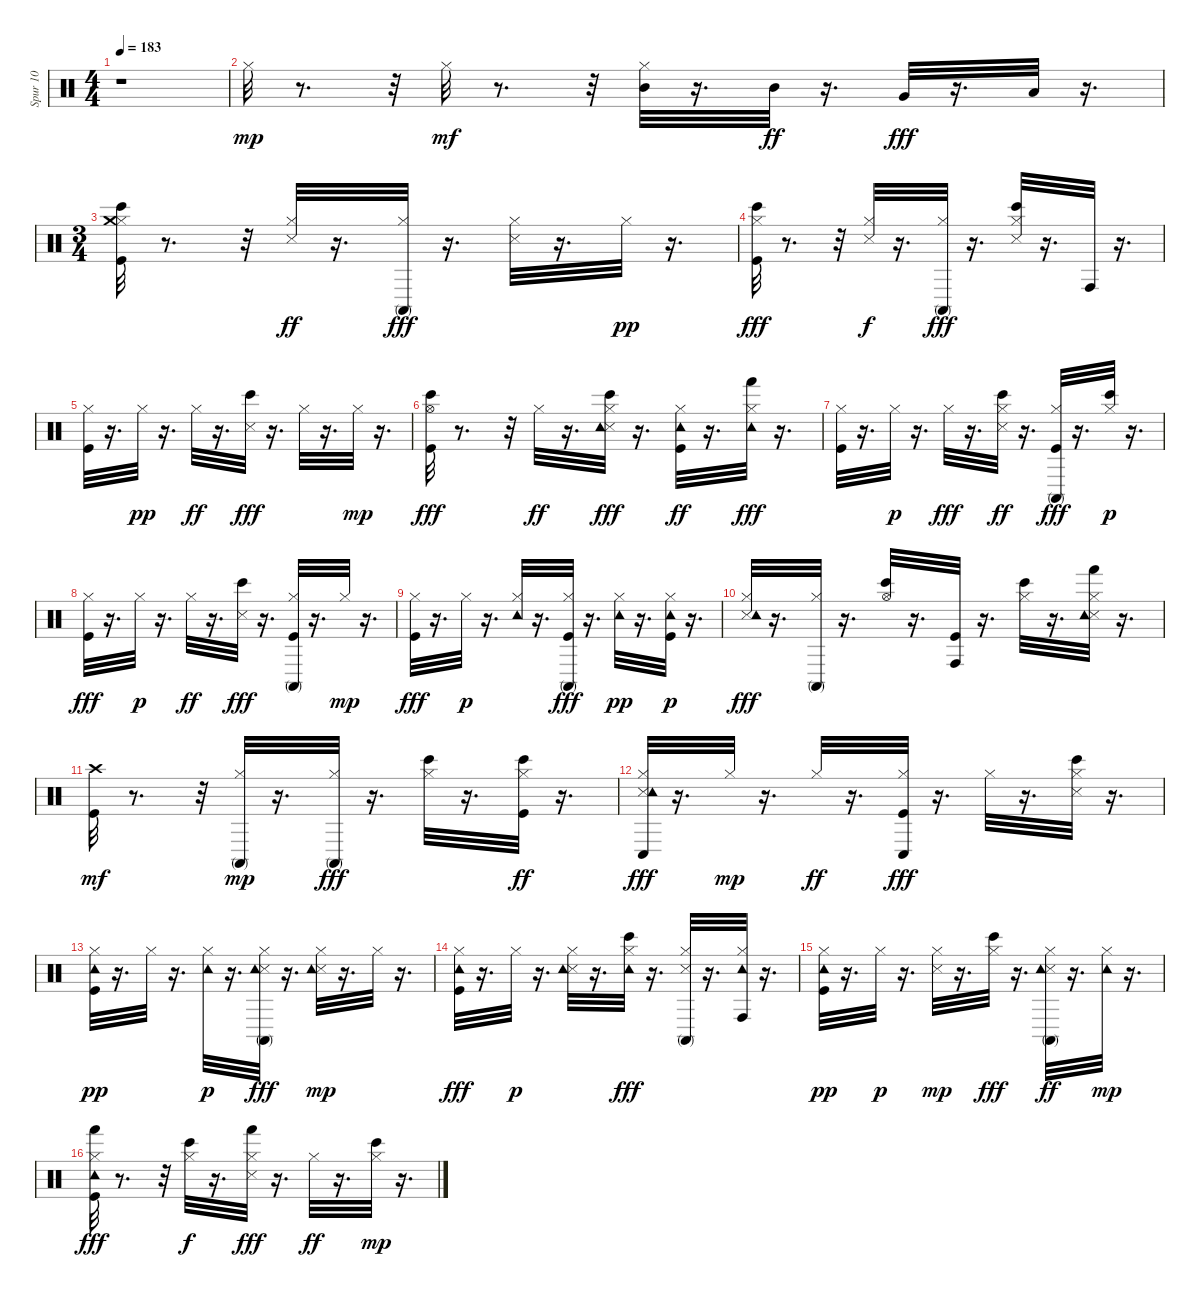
\track ("Spur 10" "Spur 10") {instrument percussion}
\staff {score}
\articulation defaults
\ts (4 4)
\tempo 183
\clef neutral
\ks c
r.1{dy mp} |
"Hi-Hat (closed)".32 r.8{d} r.32 "Hi-Hat (closed)".32{dy mf} r.8{d} r.32 ("Hi-Hat (closed)" "Mid Tom (hit)").32 r.16{d} "Mid Tom (hit)".32{dy ff} r.16{d} "Very Low Tom (hit)".32{dy fff} r.16{d} "Low Floor Tom (hit)".32 r.16{d} |
\ts (3 4)
("Kick (hit)" "Hi-Hat (closed)" "Crash medium (hit)" "Bongo High (hit)").32 r.8{d} r.32 ("Snare (side stick) 3" "Hi-Hat (closed)").32{dy ff} r.16{d} ("Hi-Hat (closed)" "Conga high (mute)").32{dy fff} r.16{d} ("Snare (side stick) 3" "Hi-Hat (closed)").32 r.16{d} "Hi-Hat (closed)".32{dy pp} r.16{d} |
("Kick (hit)" "Hi-Hat (closed)" "Bongo High (hit)").32{dy fff} r.8{d} r.32 ("Snare (side stick) 3" "Hi-Hat (closed)").32{dy f} r.16{d} ("Hi-Hat (closed)" "Conga high (mute)").32{dy fff} r.16{d} ("Snare (side stick) 3" "Hi-Hat (closed)" "Bongo High (hit)").32 r.16{d} "Conga high (hit)".32 r.16{d} |
("Kick (hit)" "Hi-Hat (closed)").32 r.16{d} "Hi-Hat (closed)".32{dy pp} r.16{d} "Hi-Hat (closed)".32{dy ff} r.16{d} ("Snare (side stick) 3" "Bongo High (hit)").32{dy fff} r.16{d} "Hi-Hat (closed)".32 r.16{d} "Hi-Hat (closed)".32{dy mp} r.16{d} |
("Kick (hit)" "Hi-Hat (open)" "Bongo High (hit)").32{dy fff} r.8{d} r.32 "Hi-Hat (closed)".32{dy ff} r.16{d} ("Snare (side stick) 3" "Hi-Hat (closed)" "Tambourine (hit)" "Bongo High (hit)").32{dy fff} r.16{d} ("Kick (hit)" "Hi-Hat (closed)" "Tambourine (hit)").32{dy ff} r.16{d} ("Hi-Hat (closed)" "Tambourine (hit)" "Hand (hit)").32{dy fff} r.16{d} |
("Kick (hit)" "Hi-Hat (closed)").32 r.16{d} "Hi-Hat (closed)".32{dy p} r.16{d} "Hi-Hat (closed)".32{dy fff} r.16{d} ("Snare (side stick) 3" "Hi-Hat (closed)" "Bongo High (hit)").32{dy ff} r.16{d} ("Kick (hit)" "Hi-Hat (closed)" "Conga high (mute)").32{dy fff} r.16{d} ("Hi-Hat (closed)" "Bongo High (hit)").32{dy p} r.16{d} |
("Kick (hit)" "Hi-Hat (closed)").32{dy fff} r.16{d} "Hi-Hat (closed)".32{dy p} r.16{d} "Hi-Hat (closed)".32{dy ff} r.16{d} ("Snare (side stick) 3" "Bongo High (hit)").32{dy fff} r.16{d} ("Kick (hit)" "Hi-Hat (closed)" "Conga high (mute)").32 r.16{d} "Hi-Hat (closed)".32{dy mp} r.16{d} |
("Kick (hit)" "Hi-Hat (closed)").32{dy fff} r.16{d} "Hi-Hat (closed)".32{dy p} r.16{d} ("Hi-Hat (closed)" "Tambourine (hit)").32 r.16{d} ("Kick (hit)" "Hi-Hat (closed)" "Conga high (mute)").32{dy fff} r.16{d} ("Hi-Hat (closed)" "Tambourine (hit)").32{dy pp} r.16{d} ("Kick (hit)" "Hi-Hat (closed)" "Tambourine (hit)").32{dy p} r.16{d} |
("Snare (side stick) 3" "Hi-Hat (closed)" "Tambourine (hit)").32{dy fff} r.16{d} ("Hi-Hat (closed)" "Conga high (mute)").32 r.16{d} ("Hi-Hat (open)" "Bongo High (hit)").32 r.16{d} ("Kick (hit)" "Conga high (hit)").32 r.16{d} ("Hi-Hat (closed)" "Bongo High (hit)").32 r.16{d} ("Snare (side stick) 3" "Hi-Hat (closed)" "Tambourine (hit)" "Hand (hit)").32 r.16{d} |
("Kick (hit)" "Crash high (hit)").32{dy mf} r.8{d} r.32 ("Hi-Hat (closed)" "Conga high (mute)").32{dy mp} r.16{d} ("Hi-Hat (closed)" "Conga high (mute)").32{dy fff} r.16{d} ("Hi-Hat (closed)" "Bongo High (hit)").32 r.16{d} ("Kick (hit)" "Hi-Hat (closed)" "Bongo High (hit)").32{dy ff} r.16{d} |
("Snare (side stick) 3" "Hi-Hat (closed)" "Tambourine (hit)" "Conga low (hit)").32{dy fff} r.16{d} "Hi-Hat (closed)".32{dy mp} r.16{d} "Hi-Hat (closed)".32{dy ff} r.16{d} ("Kick (hit)" "Hi-Hat (closed)" "Conga low (hit)").32{dy fff} r.16{d} "Hi-Hat (closed)".32 r.16{d} ("Snare (side stick) 3" "Hi-Hat (closed)" "Bongo High (hit)").32 r.16{d} |
("Kick (hit)" "Hi-Hat (closed)" "Tambourine (hit)").32{dy pp} r.16{d} "Hi-Hat (closed)".32 r.16{d} ("Hi-Hat (closed)" "Tambourine (hit)").32{dy p} r.16{d} ("Snare (side stick) 3" "Hi-Hat (closed)" "Tambourine (hit)" "Conga high (mute)").32{dy fff} r.16{d} ("Snare (side stick) 3" "Hi-Hat (closed)" "Tambourine (hit)").32{dy mp} r.16{d} "Hi-Hat (closed)".32 r.16{d} |
("Kick (hit)" "Hi-Hat (closed)" "Tambourine (hit)").32{dy fff} r.16{d} "Hi-Hat (closed)".32{dy p} r.16{d} ("Snare (side stick) 3" "Hi-Hat (closed)" "Tambourine (hit)").32 r.16{d} ("Hi-Hat (closed)" "Tambourine (hit)" "Bongo High (hit)").32{dy fff} r.16{d} ("Snare (side stick) 3" "Hi-Hat (closed)" "Conga high (mute)").32 r.16{d} ("Hi-Hat (closed)" "Tambourine (hit)" "Conga high (hit)").32 r.16{d} |
("Kick (hit)" "Hi-Hat (closed)" "Tambourine (hit)").32{dy pp} r.16{d} "Hi-Hat (closed)".32{dy p} r.16{d} ("Snare (side stick) 3" "Hi-Hat (closed)").32{dy mp} r.16{d} ("Hi-Hat (closed)" "Bongo High (hit)").32{dy fff} r.16{d} ("Snare (side stick) 3" "Hi-Hat (closed)" "Tambourine (hit)" "Conga high (mute)").32{dy ff} r.16{d} ("Hi-Hat (closed)" "Tambourine (hit)").32{dy mp} r.16{d} |
("Kick (hit)" "Hi-Hat (closed)" "Tambourine (hit)" "Hand (hit)").32{dy fff} r.8{d} r.32 ("Hi-Hat (closed)" "Bongo High (hit)").32{dy f} r.16{d} ("Snare (side stick) 3" "Hi-Hat (closed)" "Hand (hit)").32{dy fff} r.16{d} "Hi-Hat (closed)".32{dy ff} r.16{d} ("Hi-Hat (closed)" "Bongo High (hit)").32{dy mp} r.16{d}
